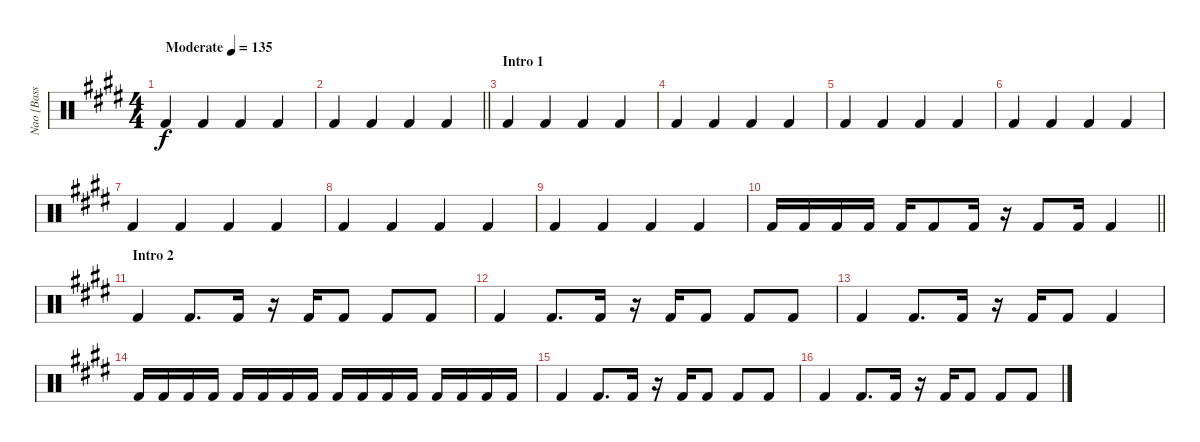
\track ("Nao [Bass Drum]" "Nao [Bass ") {instrument percussion}
\staff {score}
\articulation defaults
\ts (4 4)
\tempo (135 "Moderate")
\clef neutral
\ks e "Kick (hit) 2".4{dy f} "Kick (hit) 2".4 "Kick (hit) 2".4 "Kick (hit) 2".4
|
\barLineRight lightlight "Kick (hit) 2".4 "Kick (hit) 2".4 "Kick (hit) 2".4 "Kick (hit) 2".4
|
\section ("" "Intro 1")
"Kick (hit) 2".4 "Kick (hit) 2".4 "Kick (hit) 2".4 "Kick (hit) 2".4 |
"Kick (hit) 2".4 "Kick (hit) 2".4 "Kick (hit) 2".4 "Kick (hit) 2".4 |
"Kick (hit) 2".4 "Kick (hit) 2".4 "Kick (hit) 2".4 "Kick (hit) 2".4 |
"Kick (hit) 2".4 "Kick (hit) 2".4 "Kick (hit) 2".4 "Kick (hit) 2".4 |
"Kick (hit) 2".4 "Kick (hit) 2".4 "Kick (hit) 2".4 "Kick (hit) 2".4 |
"Kick (hit) 2".4 "Kick (hit) 2".4 "Kick (hit) 2".4 "Kick (hit) 2".4 |
"Kick (hit) 2".4 "Kick (hit) 2".4 "Kick (hit) 2".4 "Kick (hit) 2".4 |
\barLineRight lightlight "Kick (hit) 2".16 "Kick (hit) 2".16 "Kick (hit) 2".16 "Kick (hit) 2".16 "Kick (hit) 2".16 "Kick (hit) 2".8 "Kick (hit) 2".16
r.16 "Kick (hit) 2".8 "Kick (hit) 2".16 "Kick (hit) 2".4 |
\section ("" "Intro 2")
"Kick (hit) 2".4 "Kick (hit) 2".8{d} "Kick (hit) 2".16 r.16 "Kick (hit) 2".16 "Kick (hit) 2".8 "Kick (hit) 2".8 "Kick (hit) 2".8 |
"Kick (hit) 2".4 "Kick (hit) 2".8{d} "Kick (hit) 2".16 r.16 "Kick (hit) 2".16 "Kick (hit) 2".8 "Kick (hit) 2".8 "Kick (hit) 2".8 |
"Kick (hit) 2".4 "Kick (hit) 2".8{d} "Kick (hit) 2".16 r.16 "Kick (hit) 2".16 "Kick (hit) 2".8 "Kick (hit) 2".4 |
"Kick (hit) 2".16 "Kick (hit) 2".16 "Kick (hit) 2".16 "Kick (hit) 2".16 "Kick (hit) 2".16 "Kick (hit) 2".16 "Kick (hit) 2".16 "Kick (hit) 2".16 "Kick (hit) 2".16 "Kick (hit) 2".16 "Kick (hit) 2".16 "Kick (hit) 2".16 "Kick (hit) 2".16 "Kick (hit) 2".16 "Kick (hit) 2".16 "Kick (hit) 2".16 |
"Kick (hit) 2".4 "Kick (hit) 2".8{d} "Kick (hit) 2".16 r.16 "Kick (hit) 2".16 "Kick (hit) 2".8 "Kick (hit) 2".8 "Kick (hit) 2".8 |
"Kick (hit) 2".4 "Kick (hit) 2".8{d} "Kick (hit) 2".16 r.16 "Kick (hit) 2".16 "Kick (hit) 2".8 "Kick (hit) 2".8 "Kick (hit) 2".8
